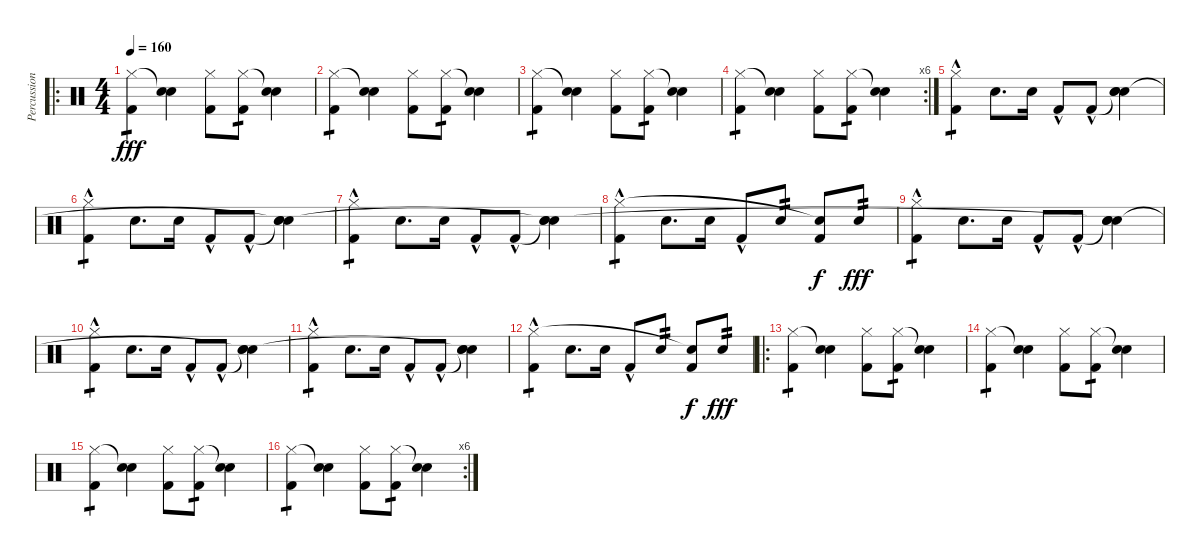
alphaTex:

\track ("Percussion" "Percussion") {instrument percussion}
\staff {score}
\articulation defaults
\ro
\ts (4 4)
\tempo 160
\clef neutral
\ks c
("Kick (hit) 2" "Hi-Hat (closed)").4{tp 1 dy fff} ("Snare (hit) 2" "Snare (hit)"{t}).4 ("Kick (hit) 2" "Hi-Hat (closed)").8 ("Kick (hit) 2" "Hi-Hat (closed)").8{tp 1} ("Snare (hit) 2" "Snare (hit)"{t}).4 |
("Kick (hit) 2" "Hi-Hat (closed)").4{tp 1} ("Snare (hit) 2" "Snare (hit)"{t}).4 ("Kick (hit) 2" "Hi-Hat (closed)").8 ("Kick (hit) 2" "Hi-Hat (closed)").8{tp 1} ("Snare (hit) 2" "Snare (hit)"{t}).4 |
("Kick (hit) 2" "Hi-Hat (closed)").4{tp 1} ("Snare (hit) 2" "Snare (hit)"{t}).4 ("Kick (hit) 2" "Hi-Hat (closed)").8 ("Kick (hit) 2" "Hi-Hat (closed)").8{tp 1} ("Snare (hit) 2" "Snare (hit)"{t}).4 |
\rc 6
("Kick (hit) 2" "Hi-Hat (closed)").4{tp 1} ("Snare (hit) 2" "Snare (hit)"{t}).4 ("Kick (hit) 2" "Hi-Hat (closed)").8 ("Kick (hit) 2" "Hi-Hat (closed)").8{tp 1} ("Snare (hit) 2" "Snare (hit)"{t}).4 |
("Kick (hit) 2"{hac} "Hi-Hat (closed)").4{tp 1} "Snare (hit) 2".8{d} "Snare (hit) 2".16 "Kick (hit) 2"{hac}.8 "Kick (hit) 2"{hac}.8 ("Snare (hit)"{t} "Snare (hit) 2" "Snare (hit)").4 |
("Kick (hit) 2"{hac} "Hi-Hat (closed)").4{tp 1} "Snare (hit) 2".8{d} "Snare (hit) 2".16 "Kick (hit) 2"{hac}.8 "Kick (hit) 2"{hac}.8 ("Snare (hit)"{t} "Snare (hit) 2" "Snare (hit)"{t}).4 |
("Kick (hit) 2"{hac} "Hi-Hat (closed)").4{tp 1} "Snare (hit) 2".8{d} "Snare (hit) 2".16 "Kick (hit) 2"{hac}.8 "Kick (hit) 2"{hac}.8 ("Snare (hit)"{t} "Snare (hit) 2" "Snare (hit)"{t}).4 |
("Kick (hit) 2"{hac} "Hi-Hat (closed)").4{tp 1} "Snare (hit) 2".8{d} "Snare (hit) 2".16 "Kick (hit) 2"{hac}.8 "Snare (hit) 2".8{tp 2} ("Kick (hit) 2" "Snare (hit)"{t}).8{dy f} "Snare (hit) 2".8{tp 2 dy fff} |
("Kick (hit) 2"{hac} "Hi-Hat (closed)").4{tp 1} "Snare (hit) 2".8{d} "Snare (hit) 2".16 "Kick (hit) 2"{hac}.8 "Kick (hit) 2"{hac}.8 ("Snare (hit)"{t} "Snare (hit) 2" "Snare (hit)"{t}).4 |
("Kick (hit) 2"{hac} "Hi-Hat (closed)").4{tp 1} "Snare (hit) 2".8{d} "Snare (hit) 2".16 "Kick (hit) 2"{hac}.8 "Kick (hit) 2"{hac}.8 ("Snare (hit)"{t} "Snare (hit) 2" "Snare (hit)"{t}).4 |
("Kick (hit) 2"{hac} "Hi-Hat (closed)").4{tp 1} "Snare (hit) 2".8{d} "Snare (hit) 2".16 "Kick (hit) 2"{hac}.8 "Kick (hit) 2"{hac}.8 ("Snare (hit)"{t} "Snare (hit) 2" "Snare (hit)"{t}).4 |
("Kick (hit) 2"{hac} "Hi-Hat (closed)").4{tp 1} "Snare (hit) 2".8{d} "Snare (hit) 2".16 "Kick (hit) 2"{hac}.8 "Snare (hit) 2".8{tp 2} ("Kick (hit) 2" "Snare (hit)"{t}).8{dy f} "Snare (hit) 2".8{tp 2 dy fff} |
\ro
("Kick (hit) 2" "Hi-Hat (closed)").4{tp 1} ("Snare (hit) 2" "Snare (hit)"{t}).4 ("Kick (hit) 2" "Hi-Hat (closed)").8 ("Kick (hit) 2" "Hi-Hat (closed)").8{tp 1} ("Snare (hit) 2" "Snare (hit)"{t}).4 |
("Kick (hit) 2" "Hi-Hat (closed)").4{tp 1} ("Snare (hit) 2" "Snare (hit)"{t}).4 ("Kick (hit) 2" "Hi-Hat (closed)").8 ("Kick (hit) 2" "Hi-Hat (closed)").8{tp 1} ("Snare (hit) 2" "Snare (hit)"{t}).4 |
("Kick (hit) 2" "Hi-Hat (closed)").4{tp 1} ("Snare (hit) 2" "Snare (hit)"{t}).4 ("Kick (hit) 2" "Hi-Hat (closed)").8 ("Kick (hit) 2" "Hi-Hat (closed)").8{tp 1} ("Snare (hit) 2" "Snare (hit)"{t}).4 |
\rc 6
("Kick (hit) 2" "Hi-Hat (closed)").4{tp 1} ("Snare (hit) 2" "Snare (hit)"{t}).4 ("Kick (hit) 2" "Hi-Hat (closed)").8 ("Kick (hit) 2" "Hi-Hat (closed)").8{tp 1} ("Snare (hit) 2" "Snare (hit)"{t}).4
